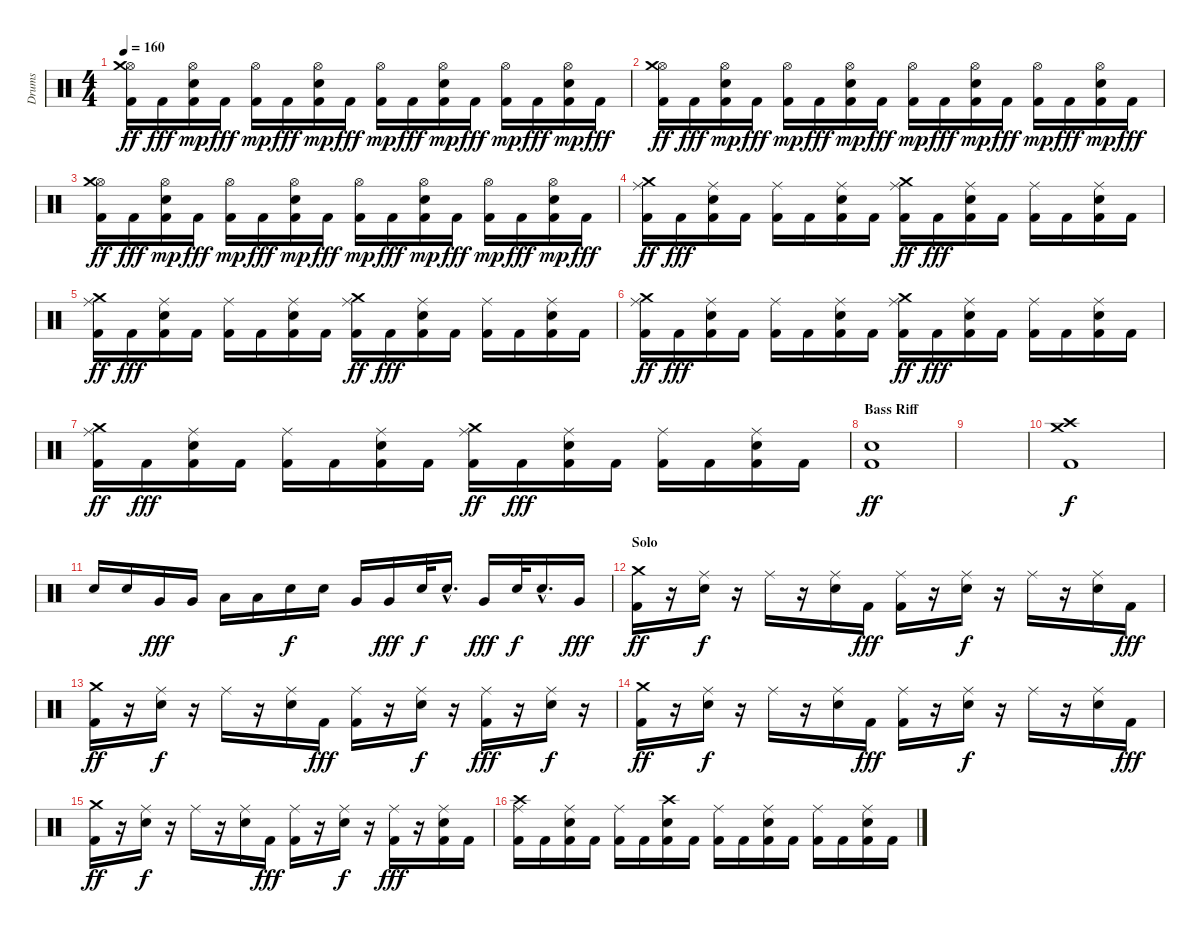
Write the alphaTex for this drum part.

\track ("Drums" "Drums") {instrument percussion}
\staff {score}
\articulation defaults
\ts (4 4)
\tempo 160
\clef neutral
\ks c
("Kick (hit) 2" "Hi-Hat (open)" "Crash medium (hit)").16{dy ff} "Kick (hit) 2".16{dy fff} ("Kick (hit) 2" "Hi-Hat (open)" "Snare (hit) 2").16{dy mp} "Kick (hit) 2".16{dy fff} ("Kick (hit) 2" "Hi-Hat (open)").16{dy mp} "Kick (hit) 2".16{dy fff} ("Kick (hit) 2" "Hi-Hat (open)" "Snare (hit) 2").16{dy mp} "Kick (hit) 2".16{dy fff} ("Kick (hit) 2" "Hi-Hat (open)").16{dy mp} "Kick (hit) 2".16{dy fff} ("Kick (hit) 2" "Hi-Hat (open)" "Snare (hit) 2").16{dy mp} "Kick (hit) 2".16{dy fff} ("Kick (hit) 2" "Hi-Hat (open)").16{dy mp} "Kick (hit) 2".16{dy fff} ("Kick (hit) 2" "Hi-Hat (open)" "Snare (hit) 2").16{dy mp} "Kick (hit) 2".16{dy fff} |
("Kick (hit) 2" "Hi-Hat (open)" "Crash medium (hit)").16{dy ff} "Kick (hit) 2".16{dy fff} ("Kick (hit) 2" "Hi-Hat (open)" "Snare (hit) 2").16{dy mp} "Kick (hit) 2".16{dy fff} ("Kick (hit) 2" "Hi-Hat (open)").16{dy mp} "Kick (hit) 2".16{dy fff} ("Kick (hit) 2" "Hi-Hat (open)" "Snare (hit) 2").16{dy mp} "Kick (hit) 2".16{dy fff} ("Kick (hit) 2" "Hi-Hat (open)").16{dy mp} "Kick (hit) 2".16{dy fff} ("Kick (hit) 2" "Hi-Hat (open)" "Snare (hit) 2").16{dy mp} "Kick (hit) 2".16{dy fff} ("Kick (hit) 2" "Hi-Hat (open)").16{dy mp} "Kick (hit) 2".16{dy fff} ("Kick (hit) 2" "Hi-Hat (open)" "Snare (hit) 2").16{dy mp} "Kick (hit) 2".16{dy fff} |
("Kick (hit) 2" "Hi-Hat (open)" "Crash medium (hit)").16{dy ff} "Kick (hit) 2".16{dy fff} ("Kick (hit) 2" "Hi-Hat (open)" "Snare (hit) 2").16{dy mp} "Kick (hit) 2".16{dy fff} ("Kick (hit) 2" "Hi-Hat (open)").16{dy mp} "Kick (hit) 2".16{dy fff} ("Kick (hit) 2" "Hi-Hat (open)" "Snare (hit) 2").16{dy mp} "Kick (hit) 2".16{dy fff} ("Kick (hit) 2" "Hi-Hat (open)").16{dy mp} "Kick (hit) 2".16{dy fff} ("Kick (hit) 2" "Hi-Hat (open)" "Snare (hit) 2").16{dy mp} "Kick (hit) 2".16{dy fff} ("Kick (hit) 2" "Hi-Hat (open)").16{dy mp} "Kick (hit) 2".16{dy fff} ("Kick (hit) 2" "Hi-Hat (open)" "Snare (hit) 2").16{dy mp} "Kick (hit) 2".16{dy fff} |
("Kick (hit) 2" "Ride (middle)" "Crash medium (hit)").16{dy ff} "Kick (hit) 2".16{dy fff} ("Kick (hit) 2" "Ride (middle)" "Snare (hit) 2").16 "Kick (hit) 2".16 ("Kick (hit) 2" "Ride (middle)").16 "Kick (hit) 2".16 ("Kick (hit) 2" "Ride (middle)" "Snare (hit) 2").16 "Kick (hit) 2".16 ("Kick (hit) 2" "Ride (middle)" "Crash medium (hit)").16{dy ff} "Kick (hit) 2".16{dy fff} ("Kick (hit) 2" "Ride (middle)" "Snare (hit) 2").16 "Kick (hit) 2".16 ("Kick (hit) 2" "Ride (middle)").16 "Kick (hit) 2".16 ("Kick (hit) 2" "Ride (middle)" "Snare (hit) 2").16 "Kick (hit) 2".16 |
("Kick (hit) 2" "Ride (middle)" "Crash medium (hit)").16{dy ff} "Kick (hit) 2".16{dy fff} ("Kick (hit) 2" "Ride (middle)" "Snare (hit) 2").16 "Kick (hit) 2".16 ("Kick (hit) 2" "Ride (middle)").16 "Kick (hit) 2".16 ("Kick (hit) 2" "Ride (middle)" "Snare (hit) 2").16 "Kick (hit) 2".16 ("Kick (hit) 2" "Ride (middle)" "Crash medium (hit)").16{dy ff} "Kick (hit) 2".16{dy fff} ("Kick (hit) 2" "Ride (middle)" "Snare (hit) 2").16 "Kick (hit) 2".16 ("Kick (hit) 2" "Ride (middle)").16 "Kick (hit) 2".16 ("Kick (hit) 2" "Ride (middle)" "Snare (hit) 2").16 "Kick (hit) 2".16 |
("Kick (hit) 2" "Ride (middle)" "Crash medium (hit)").16{dy ff} "Kick (hit) 2".16{dy fff} ("Kick (hit) 2" "Ride (middle)" "Snare (hit) 2").16 "Kick (hit) 2".16 ("Kick (hit) 2" "Ride (middle)").16 "Kick (hit) 2".16 ("Kick (hit) 2" "Ride (middle)" "Snare (hit) 2").16 "Kick (hit) 2".16 ("Kick (hit) 2" "Ride (middle)" "Crash medium (hit)").16{dy ff} "Kick (hit) 2".16{dy fff} ("Kick (hit) 2" "Ride (middle)" "Snare (hit) 2").16 "Kick (hit) 2".16 ("Kick (hit) 2" "Ride (middle)").16 "Kick (hit) 2".16 ("Kick (hit) 2" "Ride (middle)" "Snare (hit) 2").16 "Kick (hit) 2".16 |
("Kick (hit) 2" "Ride (middle)" "Crash medium (hit)").16{dy ff} "Kick (hit) 2".16{dy fff} ("Kick (hit) 2" "Ride (middle)" "Snare (hit) 2").16 "Kick (hit) 2".16 ("Kick (hit) 2" "Ride (middle)").16 "Kick (hit) 2".16 ("Kick (hit) 2" "Ride (middle)" "Snare (hit) 2").16 "Kick (hit) 2".16 ("Kick (hit) 2" "Ride (middle)" "Crash medium (hit)").16{dy ff} "Kick (hit) 2".16{dy fff} ("Kick (hit) 2" "Ride (middle)" "Snare (hit) 2").16 "Kick (hit) 2".16 ("Kick (hit) 2" "Ride (middle)").16 "Kick (hit) 2".16 ("Kick (hit) 2" "Ride (middle)" "Snare (hit) 2").16 "Kick (hit) 2".16 |
\section ("" "Bass Riff")
("Kick (hit) 2" "Snare (hit) 2").1{dy ff} |
|
("Kick (hit) 2" "Crash high (hit)" "Crash medium (hit)").1{dy f} |
"Snare (hit) 2".16 "Snare (hit) 2".16 "Very Low Tom (hit)".16{dy fff} "Very Low Tom (hit)".16 "Low Floor Tom (hit)".16 "Low Floor Tom (hit)".16 "Snare (hit) 2".16{dy f} "Snare (hit) 2".16 "Very Low Tom (hit)".16 "Very Low Tom (hit)".16{dy fff} "Snare (hit) 2".32{dy f} "Snare (hit) 2"{hac}.16{d} "Very Low Tom (hit)".16{dy fff} "Snare (hit) 2".32{dy f} "Snare (hit) 2"{hac}.16{d} "Very Low Tom (hit)".16{dy fff} |
\section ("" "Solo")
("Kick (hit) 2" "Crash medium (hit)").16{dy ff} r.16 ("Ride (middle)" "Snare (hit) 2").16{dy f} r.16 "Ride (middle)".16 r.16 ("Ride (middle)" "Snare (hit) 2").16 "Kick (hit) 2".16{dy fff} ("Kick (hit) 2" "Ride (middle)").16 r.16 ("Ride (middle)" "Snare (hit) 2").16{dy f} r.16 "Ride (middle)".16 r.16 ("Ride (middle)" "Snare (hit) 2").16 "Kick (hit) 2".16{dy fff} |
("Kick (hit) 2" "Crash medium (hit)").16{dy ff} r.16 ("Ride (middle)" "Snare (hit) 2").16{dy f} r.16 "Ride (middle)".16 r.16 ("Ride (middle)" "Snare (hit) 2").16 "Kick (hit) 2".16{dy fff} ("Kick (hit) 2" "Ride (middle)").16 r.16 ("Ride (middle)" "Snare (hit) 2").16{dy f} r.16 ("Kick (hit) 2" "Ride (middle)").16{dy fff} r.16 ("Ride (middle)" "Snare (hit) 2").16{dy f} r.16 |
("Kick (hit) 2" "Crash medium (hit)").16{dy ff} r.16 ("Ride (middle)" "Snare (hit) 2").16{dy f} r.16 "Ride (middle)".16 r.16 ("Ride (middle)" "Snare (hit) 2").16 "Kick (hit) 2".16{dy fff} ("Kick (hit) 2" "Ride (middle)").16 r.16 ("Ride (middle)" "Snare (hit) 2").16{dy f} r.16 "Ride (middle)".16 r.16 ("Ride (middle)" "Snare (hit) 2").16 "Kick (hit) 2".16{dy fff} |
("Kick (hit) 2" "Crash medium (hit)").16{dy ff} r.16 ("Ride (middle)" "Snare (hit) 2").16{dy f} r.16 "Ride (middle)".16 r.16 ("Ride (middle)" "Snare (hit) 2").16 "Kick (hit) 2".16{dy fff} ("Kick (hit) 2" "Ride (middle)").16 r.16 ("Ride (middle)" "Snare (hit) 2").16{dy f} r.16 ("Kick (hit) 2" "Ride (middle)").16{dy fff} r.16 ("Kick (hit) 2" "Ride (middle)" "Snare (hit) 2").16 "Kick (hit) 2".16 |
("Kick (hit) 2" "Ride (middle)" "Crash high (hit)").16 "Kick (hit) 2".16 ("Kick (hit) 2" "Ride (middle)" "Snare (hit) 2").16 "Kick (hit) 2".16 ("Kick (hit) 2" "Ride (middle)").16 "Kick (hit) 2".16 ("Kick (hit) 2" "Snare (hit) 2" "Crash high (hit)").16 "Kick (hit) 2".16 ("Kick (hit) 2" "Ride (middle)").16 "Kick (hit) 2".16 ("Kick (hit) 2" "Ride (middle)" "Snare (hit) 2").16 "Kick (hit) 2".16 ("Kick (hit) 2" "Ride (middle)").16 "Kick (hit) 2".16 ("Kick (hit) 2" "Ride (middle)" "Snare (hit) 2").16 "Kick (hit) 2".16
